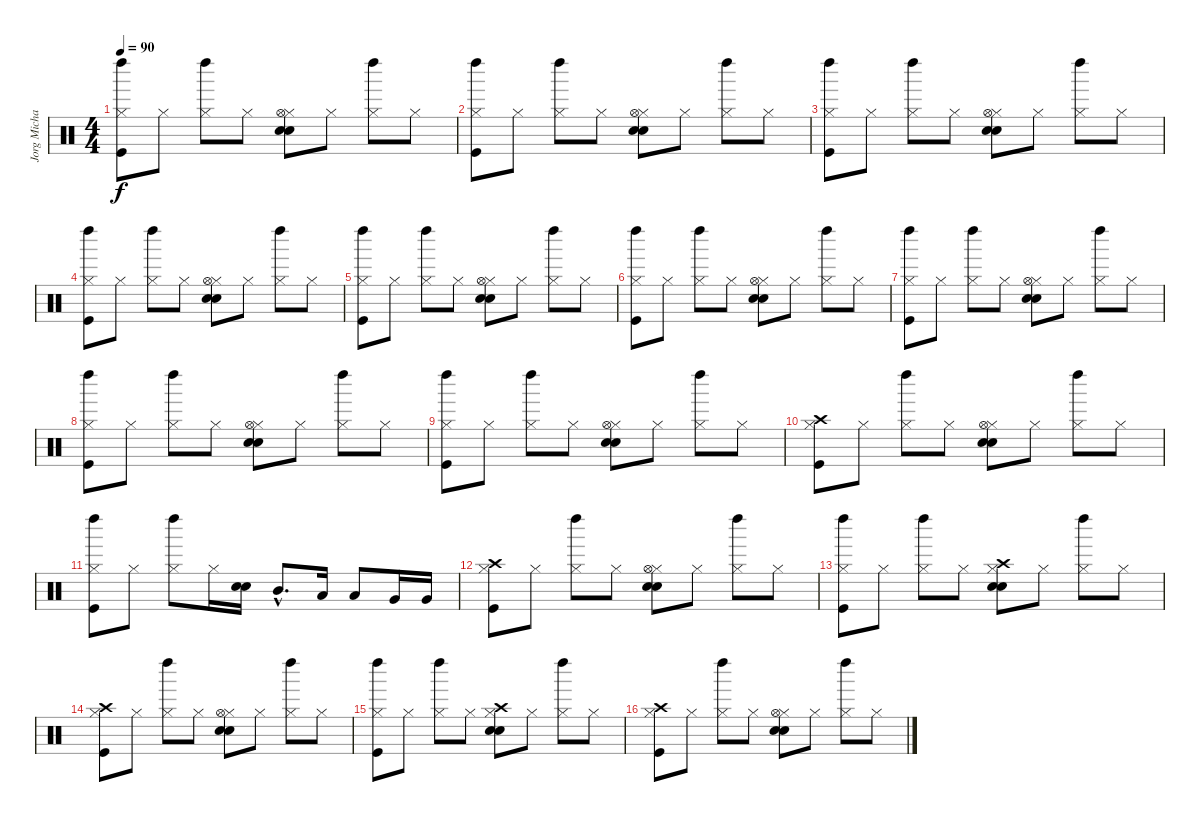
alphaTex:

\track ("Jorg Michael - Batteria" "Jorg Micha") {instrument percussion}
\staff {score}
\articulation defaults
\ts (4 4)
\tempo 90
\clef neutral
\ks c
("Kick (hit)" "Hi-Hat (closed)" "Left Maraca (hit)").8{dy f} "Hi-Hat (closed)".8 ("Hi-Hat (closed)" "Left Maraca (hit)").8 "Hi-Hat (closed)".8 ("Snare (hit) 2" "Hi-Hat (closed)" "Electric Snare (hit)" "Hi-Hat (open)").8 "Hi-Hat (closed)".8 ("Hi-Hat (closed)" "Left Maraca (hit)").8 "Hi-Hat (closed)".8 |
("Kick (hit)" "Hi-Hat (closed)" "Left Maraca (hit)").8 "Hi-Hat (closed)".8 ("Hi-Hat (closed)" "Left Maraca (hit)").8 "Hi-Hat (closed)".8 ("Snare (hit) 2" "Hi-Hat (closed)" "Electric Snare (hit)" "Hi-Hat (open)").8 "Hi-Hat (closed)".8 ("Hi-Hat (closed)" "Left Maraca (hit)").8 "Hi-Hat (closed)".8 |
("Kick (hit)" "Hi-Hat (closed)" "Left Maraca (hit)").8 "Hi-Hat (closed)".8 ("Hi-Hat (closed)" "Left Maraca (hit)").8 "Hi-Hat (closed)".8 ("Snare (hit) 2" "Hi-Hat (closed)" "Electric Snare (hit)" "Hi-Hat (open)").8 "Hi-Hat (closed)".8 ("Hi-Hat (closed)" "Left Maraca (hit)").8 "Hi-Hat (closed)".8 |
("Kick (hit)" "Hi-Hat (closed)" "Left Maraca (hit)").8 "Hi-Hat (closed)".8 ("Hi-Hat (closed)" "Left Maraca (hit)").8 "Hi-Hat (closed)".8 ("Snare (hit) 2" "Hi-Hat (closed)" "Electric Snare (hit)" "Hi-Hat (open)").8 "Hi-Hat (closed)".8 ("Hi-Hat (closed)" "Left Maraca (hit)").8 "Hi-Hat (closed)".8 |
("Kick (hit)" "Hi-Hat (closed)" "Left Maraca (hit)").8 "Hi-Hat (closed)".8 ("Hi-Hat (closed)" "Left Maraca (hit)").8 "Hi-Hat (closed)".8 ("Snare (hit) 2" "Hi-Hat (closed)" "Electric Snare (hit)" "Hi-Hat (open)").8 "Hi-Hat (closed)".8 ("Hi-Hat (closed)" "Left Maraca (hit)").8 "Hi-Hat (closed)".8 |
("Kick (hit)" "Hi-Hat (closed)" "Left Maraca (hit)").8 "Hi-Hat (closed)".8 ("Hi-Hat (closed)" "Left Maraca (hit)").8 "Hi-Hat (closed)".8 ("Snare (hit) 2" "Hi-Hat (closed)" "Electric Snare (hit)" "Hi-Hat (open)").8 "Hi-Hat (closed)".8 ("Hi-Hat (closed)" "Left Maraca (hit)").8 "Hi-Hat (closed)".8 |
("Kick (hit)" "Hi-Hat (closed)" "Left Maraca (hit)").8 "Hi-Hat (closed)".8 ("Hi-Hat (closed)" "Left Maraca (hit)").8 "Hi-Hat (closed)".8 ("Snare (hit) 2" "Hi-Hat (closed)" "Electric Snare (hit)" "Hi-Hat (open)").8 "Hi-Hat (closed)".8 ("Hi-Hat (closed)" "Left Maraca (hit)").8 "Hi-Hat (closed)".8 |
("Kick (hit)" "Hi-Hat (closed)" "Left Maraca (hit)").8 "Hi-Hat (closed)".8 ("Hi-Hat (closed)" "Left Maraca (hit)").8 "Hi-Hat (closed)".8 ("Snare (hit) 2" "Hi-Hat (closed)" "Electric Snare (hit)" "Hi-Hat (open)").8 "Hi-Hat (closed)".8 ("Hi-Hat (closed)" "Left Maraca (hit)").8 "Hi-Hat (closed)".8 |
("Kick (hit)" "Hi-Hat (closed)" "Left Maraca (hit)").8 "Hi-Hat (closed)".8 ("Hi-Hat (closed)" "Left Maraca (hit)").8 "Hi-Hat (closed)".8 ("Snare (hit) 2" "Hi-Hat (closed)" "Electric Snare (hit)" "Hi-Hat (open)").8 "Hi-Hat (closed)".8 ("Hi-Hat (closed)" "Left Maraca (hit)").8 "Hi-Hat (closed)".8 |
("Kick (hit)" "Hi-Hat (closed)" "Crash high (hit)").8 "Hi-Hat (closed)".8 ("Hi-Hat (closed)" "Left Maraca (hit)").8 "Hi-Hat (closed)".8 ("Snare (hit) 2" "Hi-Hat (closed)" "Electric Snare (hit)" "Hi-Hat (open)").8 "Hi-Hat (closed)".8 ("Hi-Hat (closed)" "Left Maraca (hit)").8 "Hi-Hat (closed)".8 |
("Kick (hit)" "Hi-Hat (closed)" "Left Maraca (hit)").8 "Hi-Hat (closed)".8 ("Hi-Hat (closed)" "Left Maraca (hit)").8 "Hi-Hat (closed)".16 ("Snare (hit) 2" "Electric Snare (hit)").16 "Mid Tom (hit)"{hac}.8{d} "Low Tom (hit)".16 "Low Tom (hit)".8 "Very Low Tom (hit)".16 "Very Low Tom (hit)".16 |
("Kick (hit)" "Hi-Hat (closed)" "Crash high (hit)").8 "Hi-Hat (closed)".8 ("Hi-Hat (closed)" "Left Maraca (hit)").8 "Hi-Hat (closed)".8 ("Snare (hit) 2" "Hi-Hat (closed)" "Electric Snare (hit)" "Hi-Hat (open)").8 "Hi-Hat (closed)".8 ("Hi-Hat (closed)" "Left Maraca (hit)").8 "Hi-Hat (closed)".8 |
("Kick (hit)" "Hi-Hat (closed)" "Left Maraca (hit)").8 "Hi-Hat (closed)".8 ("Hi-Hat (closed)" "Left Maraca (hit)").8 "Hi-Hat (closed)".8 ("Snare (hit) 2" "Hi-Hat (closed)" "Electric Snare (hit)" "Crash high (hit)").8 "Hi-Hat (closed)".8 ("Hi-Hat (closed)" "Left Maraca (hit)").8 "Hi-Hat (closed)".8 |
("Kick (hit)" "Hi-Hat (closed)" "Crash high (hit)").8 "Hi-Hat (closed)".8 ("Hi-Hat (closed)" "Left Maraca (hit)").8 "Hi-Hat (closed)".8 ("Snare (hit) 2" "Hi-Hat (closed)" "Electric Snare (hit)" "Hi-Hat (open)").8 "Hi-Hat (closed)".8 ("Hi-Hat (closed)" "Left Maraca (hit)").8 "Hi-Hat (closed)".8 |
("Kick (hit)" "Hi-Hat (closed)" "Left Maraca (hit)").8 "Hi-Hat (closed)".8 ("Hi-Hat (closed)" "Left Maraca (hit)").8 "Hi-Hat (closed)".8 ("Snare (hit) 2" "Hi-Hat (closed)" "Electric Snare (hit)" "Crash high (hit)").8 "Hi-Hat (closed)".8 ("Hi-Hat (closed)" "Left Maraca (hit)").8 "Hi-Hat (closed)".8 |
("Kick (hit)" "Hi-Hat (closed)" "Crash high (hit)").8 "Hi-Hat (closed)".8 ("Hi-Hat (closed)" "Left Maraca (hit)").8 "Hi-Hat (closed)".8 ("Snare (hit) 2" "Hi-Hat (closed)" "Electric Snare (hit)" "Hi-Hat (open)").8 "Hi-Hat (closed)".8 ("Hi-Hat (closed)" "Left Maraca (hit)").8 "Hi-Hat (closed)".8
